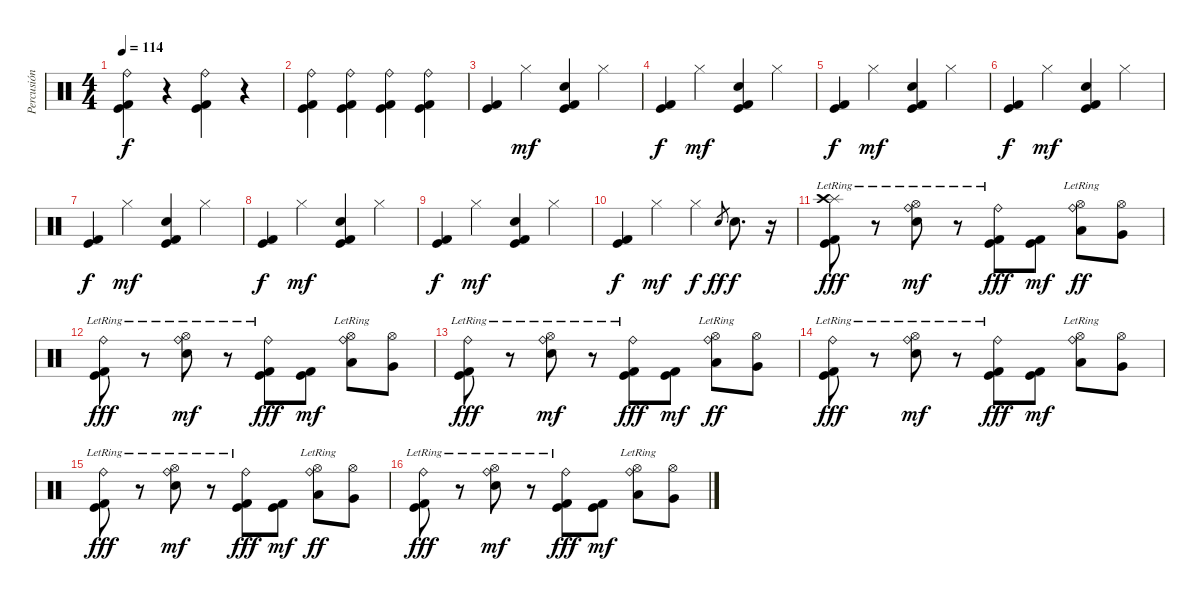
\track ("Percusión" "Percusión") {instrument percussion}
\staff {score}
\articulation defaults
\ts (4 4)
\tempo 114
\clef neutral
\ks c
("Ride (bell)" "Kick (hit) 2" "Kick (hit)").4{dy f} r.4 ("Ride (bell)" "Kick (hit) 2" "Kick (hit)").4 r.4 |
("Ride (bell)" "Kick (hit) 2" "Kick (hit)").4 ("Ride (bell)" "Kick (hit) 2" "Kick (hit)").4 ("Ride (bell)" "Kick (hit) 2" "Kick (hit)").4 ("Ride (bell)" "Kick (hit) 2" "Kick (hit)").4 |
("Kick (hit) 2" "Kick (hit)").4 "Hi-Hat (closed)".4{dy mf} ("Electric Snare (hit)" "Kick (hit) 2" "Kick (hit)").4 "Hi-Hat (closed)".4 |
("Kick (hit) 2" "Kick (hit)").4{dy f} "Hi-Hat (closed)".4{dy mf} ("Electric Snare (hit)" "Kick (hit) 2" "Kick (hit)").4 "Hi-Hat (closed)".4 |
("Kick (hit) 2" "Kick (hit)").4{dy f} "Hi-Hat (closed)".4{dy mf} ("Electric Snare (hit)" "Kick (hit) 2" "Kick (hit)").4 "Hi-Hat (closed)".4 |
("Kick (hit) 2" "Kick (hit)").4{dy f} "Hi-Hat (closed)".4{dy mf} ("Electric Snare (hit)" "Kick (hit) 2" "Kick (hit)").4 "Hi-Hat (closed)".4 |
("Kick (hit) 2" "Kick (hit)").4{dy f} "Hi-Hat (closed)".4{dy mf} ("Electric Snare (hit)" "Kick (hit) 2" "Kick (hit)").4 "Hi-Hat (closed)".4 |
("Kick (hit) 2" "Kick (hit)").4{dy f} "Hi-Hat (closed)".4{dy mf} ("Electric Snare (hit)" "Kick (hit) 2" "Kick (hit)").4 "Hi-Hat (closed)".4 |
("Kick (hit) 2" "Kick (hit)").4{dy f} "Hi-Hat (closed)".4{dy mf} ("Electric Snare (hit)" "Kick (hit) 2" "Kick (hit)").4 "Hi-Hat (closed)".4 |
("Kick (hit) 2" "Kick (hit)").4{dy f} "Hi-Hat (closed)".4{dy mf} "Hi-Hat (closed)".4{dy f} "Electric Snare (hit)".8{gr dy ff} "Electric Snare (hit)".8{d dy f} r.16 |
("Splash (hit)"{lr} "Crash high (hit)" "Kick (hit) 2" "Kick (hit)").8{dy fff} r.8 ("Ride (bell)"{lr} "Hi-Hat (open)" "Electric Snare (hit)").8{dy mf} r.8 ("Ride (bell)"{lr} "Kick (hit) 2" "Kick (hit)").8{dy fff} ("Kick (hit) 2" "Kick (hit)").8{dy mf} ("Ride (bell)"{lr} "Hi-Hat (open)" "Low Tom (hit)").8{dy ff} ("Hi-Hat (open)" "Very Low Tom (hit)").8 |
("Ride (bell)"{lr} "Kick (hit) 2" "Kick (hit)").8{dy fff} r.8 ("Ride (bell)"{lr} "Hi-Hat (open)" "Electric Snare (hit)").8{dy mf} r.8 ("Ride (bell)"{lr} "Kick (hit) 2" "Kick (hit)").8{dy fff} ("Kick (hit) 2" "Kick (hit)").8{dy mf} ("Ride (bell)"{lr} "Hi-Hat (open)" "Low Tom (hit)").8 ("Hi-Hat (open)" "Very Low Tom (hit)").8 |
("Ride (bell)"{lr} "Kick (hit) 2" "Kick (hit)").8{dy fff} r.8 ("Ride (bell)"{lr} "Hi-Hat (open)" "Electric Snare (hit)").8{dy mf} r.8 ("Ride (bell)"{lr} "Kick (hit) 2" "Kick (hit)").8{dy fff} ("Kick (hit) 2" "Kick (hit)").8{dy mf} ("Ride (bell)"{lr} "Hi-Hat (open)" "Low Tom (hit)").8{dy ff} ("Hi-Hat (open)" "Very Low Tom (hit)").8 |
("Ride (bell)"{lr} "Kick (hit) 2" "Kick (hit)").8{dy fff} r.8 ("Ride (bell)"{lr} "Hi-Hat (open)" "Electric Snare (hit)").8{dy mf} r.8 ("Ride (bell)"{lr} "Kick (hit) 2" "Kick (hit)").8{dy fff} ("Kick (hit) 2" "Kick (hit)").8{dy mf} ("Ride (bell)"{lr} "Hi-Hat (open)" "Low Tom (hit)").8 ("Hi-Hat (open)" "Very Low Tom (hit)").8 |
("Ride (bell)"{lr} "Kick (hit) 2" "Kick (hit)").8{dy fff} r.8 ("Ride (bell)"{lr} "Hi-Hat (open)" "Electric Snare (hit)").8{dy mf} r.8 ("Ride (bell)"{lr} "Kick (hit) 2" "Kick (hit)").8{dy fff} ("Kick (hit) 2" "Kick (hit)").8{dy mf} ("Ride (bell)"{lr} "Hi-Hat (open)" "Low Tom (hit)").8{dy ff} ("Hi-Hat (open)" "Very Low Tom (hit)").8 |
("Ride (bell)"{lr} "Kick (hit) 2" "Kick (hit)").8{dy fff} r.8 ("Ride (bell)"{lr} "Hi-Hat (open)" "Electric Snare (hit)").8{dy mf} r.8 ("Ride (bell)"{lr} "Kick (hit) 2" "Kick (hit)").8{dy fff} ("Kick (hit) 2" "Kick (hit)").8{dy mf} ("Ride (bell)"{lr} "Hi-Hat (open)" "Low Tom (hit)").8 ("Hi-Hat (open)" "Very Low Tom (hit)").8
